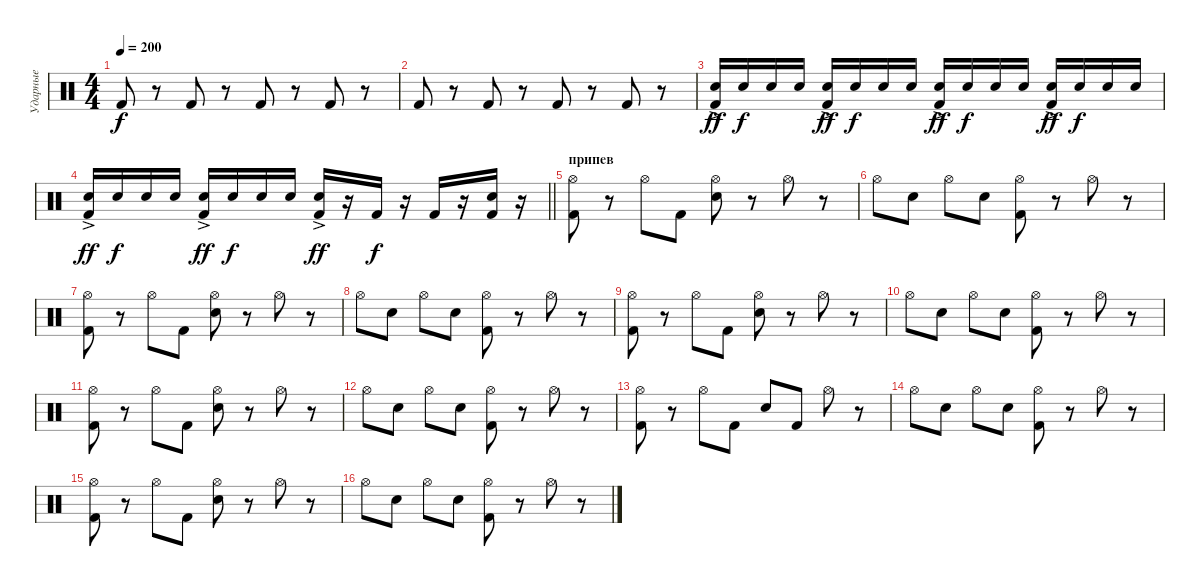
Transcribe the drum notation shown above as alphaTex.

\track ("Ударные" "Ударные") {instrument percussion}
\staff {score}
\articulation defaults
\ts (4 4)
\tempo 200
\clef neutral
\ks c "Kick (hit) 2".8{dy f}
r.8 "Kick (hit) 2".8 r.8 "Kick (hit) 2".8 r.8 "Kick (hit) 2".8 r.8 |
"Kick (hit) 2".8 r.8 "Kick (hit) 2".8 r.8 "Kick (hit) 2".8 r.8 "Kick (hit) 2".8 r.8 |
("Electric Snare (hit)"{ac} "Kick (hit) 2").16{dy ff volume 6} "Electric Snare (hit)".16{dy f volume 13} "Electric Snare (hit)".16 "Electric Snare (hit)".16 ("Electric Snare (hit)"{ac} "Kick (hit) 2").16{dy ff} "Electric Snare (hit)".16{dy f} "Electric Snare (hit)".16 "Electric Snare (hit)".16 ("Electric Snare (hit)"{ac} "Kick (hit) 2").16{dy ff} "Electric Snare (hit)".16{dy f} "Electric Snare (hit)".16 "Electric Snare (hit)".16 ("Electric Snare (hit)"{ac} "Kick (hit) 2").16{dy ff} "Electric Snare (hit)".16{dy f} "Electric Snare (hit)".16 "Electric Snare (hit)".16 |
\barLineRight lightlight
("Electric Snare (hit)"{ac} "Kick (hit) 2").16{dy ff} "Electric Snare (hit)".16{dy f} "Electric Snare (hit)".16 "Electric Snare (hit)".16 ("Electric Snare (hit)"{ac} "Kick (hit) 2").16{dy ff} "Electric Snare (hit)".16{dy f} "Electric Snare (hit)".16 "Electric Snare (hit)".16 ("Electric Snare (hit)"{ac} "Kick (hit) 2").16{dy ff} r.16 "Kick (hit) 2".16{dy f} r.16 "Kick (hit) 2".16 r.16 ("Electric Snare (hit)" "Kick (hit) 2").16 r.16 |
\section ("" "припев")
("Hi-Hat (open)" "Kick (hit) 2").8 r.8 "Hi-Hat (open)".8 "Kick (hit) 2".8 ("Hi-Hat (open)" "Electric Snare (hit)").8 r.8 "Hi-Hat (open)".8 r.8 |
"Hi-Hat (open)".8 "Electric Snare (hit)".8 "Hi-Hat (open)".8 "Electric Snare (hit)".8 ("Hi-Hat (open)" "Kick (hit) 2").8 r.8 "Hi-Hat (open)".8 r.8 |
("Hi-Hat (open)" "Kick (hit) 2").8 r.8 "Hi-Hat (open)".8 "Kick (hit) 2".8 ("Hi-Hat (open)" "Electric Snare (hit)").8 r.8 "Hi-Hat (open)".8 r.8 |
"Hi-Hat (open)".8 "Electric Snare (hit)".8 "Hi-Hat (open)".8 "Electric Snare (hit)".8 ("Hi-Hat (open)" "Kick (hit) 2").8 r.8 "Hi-Hat (open)".8 r.8 |
("Hi-Hat (open)" "Kick (hit) 2").8 r.8 "Hi-Hat (open)".8 "Kick (hit) 2".8 ("Hi-Hat (open)" "Electric Snare (hit)").8 r.8 "Hi-Hat (open)".8 r.8 |
"Hi-Hat (open)".8 "Electric Snare (hit)".8 "Hi-Hat (open)".8 "Electric Snare (hit)".8 ("Hi-Hat (open)" "Kick (hit) 2").8 r.8 "Hi-Hat (open)".8 r.8 |
("Hi-Hat (open)" "Kick (hit) 2").8 r.8 "Hi-Hat (open)".8 "Kick (hit) 2".8 ("Hi-Hat (open)" "Electric Snare (hit)").8 r.8 "Hi-Hat (open)".8 r.8 |
"Hi-Hat (open)".8 "Electric Snare (hit)".8 "Hi-Hat (open)".8 "Electric Snare (hit)".8 ("Hi-Hat (open)" "Kick (hit) 2").8 r.8 "Hi-Hat (open)".8 r.8 |
("Hi-Hat (open)" "Kick (hit) 2").8 r.8 "Hi-Hat (open)".8 "Kick (hit) 2".8 "Electric Snare (hit)".8 "Kick (hit) 2".8 "Hi-Hat (open)".8 r.8 |
"Hi-Hat (open)".8 "Electric Snare (hit)".8 "Hi-Hat (open)".8 "Electric Snare (hit)".8 ("Hi-Hat (open)" "Kick (hit) 2").8 r.8 "Hi-Hat (open)".8 r.8 |
("Hi-Hat (open)" "Kick (hit) 2").8 r.8 "Hi-Hat (open)".8 "Kick (hit) 2".8 ("Hi-Hat (open)" "Electric Snare (hit)").8 r.8 "Hi-Hat (open)".8 r.8 |
"Hi-Hat (open)".8 "Electric Snare (hit)".8 "Hi-Hat (open)".8 "Electric Snare (hit)".8 ("Hi-Hat (open)" "Kick (hit) 2").8 r.8 "Hi-Hat (open)".8 r.8
